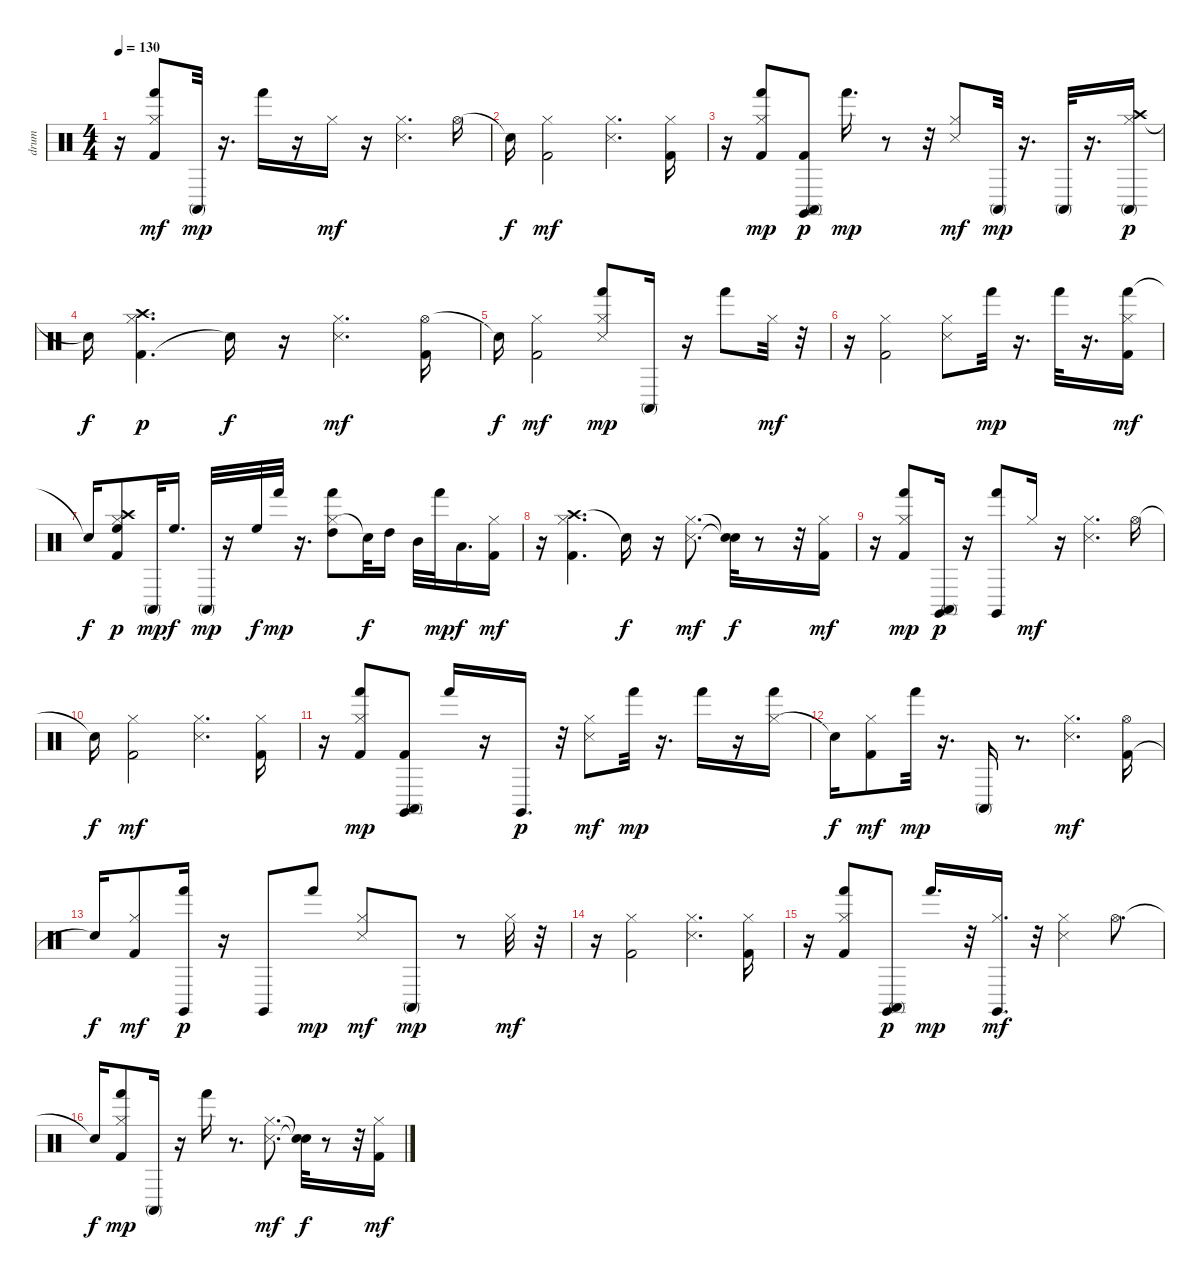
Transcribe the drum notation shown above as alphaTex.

\track ("drum" "drum") {instrument percussion}
\staff {score}
\articulation defaults
\ts (4 4)
\tempo 130
\clef neutral
\ks c
r.16{dy mf} ("Hand (hit)" "Hi-Hat (closed)" "Kick (hit) 2").8 "Conga high (mute)".32{dy mp} r.16{d} "Hand (hit)".16 r.16 "Hi-Hat (closed)".16{dy mf} r.16 ("Hi-Hat (closed)" "Snare (side stick) 3").4{d} "Hi-Hat (open)".16 |
"Snare (hit)"{t}.16{dy f} ("Kick (hit) 2" "Hi-Hat (closed)").2{dy mf} ("Hi-Hat (closed)" "Snare (side stick) 3").4{d} ("Kick (hit) 2" "Hi-Hat (closed)").16 |
r.16 ("Hi-Hat (closed)" "Hand (hit)" "Kick (hit) 2").8{dy mp} ("Kick (hit) 2" "Conga high (mute)" "Claves (hit)").8{dy p} "Hand (hit)".16{d dy mp} r.8 r.32 ("Hi-Hat (closed)" "Snare (side stick) 3").8{dy mf} "Conga high (mute)".32{dy mp} r.16{d} "Conga high (mute)".32 r.16{d} ("Hi-Hat (closed)" "Conga high (mute)" "Crash high (hit)").16{dy p} |
"Snare (hit)"{t}.16{dy f} ("Kick (hit) 2" "Hi-Hat (closed)" "Crash high (hit)").4{d dy p} "Snare (hit)"{t}.16{dy f} r.16 ("Hi-Hat (closed)" "Snare (side stick) 3").4{d dy mf} ("Hi-Hat (open)" "Kick (hit) 2").16 |
"Snare (hit)"{t}.16{dy f} ("Kick (hit) 2" "Hi-Hat (closed)").2{dy mf} ("Hi-Hat (closed)" "Snare (side stick) 3" "Hand (hit)").8{dy mp} "Conga high (mute)".16 r.16 "Hand (hit)".8 "Hi-Hat (closed)".32{dy mf} r.32 |
r.16 ("Kick (hit) 2" "Hi-Hat (closed)").2 ("Hi-Hat (closed)" "Snare (side stick) 3").8 "Hand (hit)".32{dy mp} r.16{d} "Hand (hit)".32 r.16{d} ("Hand (hit)" "Hi-Hat (closed)" "Kick (hit) 2").16{dy mf} |
"Snare (hit)"{t}.16{dy f} ("Kick (hit) 2" "Hi-Hat (closed)" "High Floor Tom (hit)" "Crash high (hit)").8{dy p} "Conga high (mute)".32{dy mp} "High Floor Tom (hit)".16{d dy f} "Conga high (mute)".32{dy mp} r.16 "High Floor Tom (hit)".32{dy f} "Hand (hit)".32{dy mp} r.16{d} ("Hi-Hat (closed)" "Hand (hit)" "High Tom (hit)").8 "Snare (hit)"{t}.32{dy f} "High Tom (hit)".16 "Mid Tom (hit)".32 "Hand (hit)".32{dy mp} "Low Tom (hit)".16{d dy f} ("Hi-Hat (closed)" "Kick (hit) 2").16{dy mf} |
r.16 ("Crash high (hit)" "Hi-Hat (closed)" "Kick (hit) 2").4{d} "Snare (hit)"{t}.16{dy f} r.16 ("Hi-Hat (closed)" "Snare (side stick) 3").8{d dy mf} ("Snare (hit)"{t} "Snare (hit)"{t}).32{dy f} r.8 r.32 ("Kick (hit) 2" "Hi-Hat (closed)").16{dy mf} |
r.16 ("Kick (hit) 2" "Hi-Hat (closed)" "Hand (hit)").8{dy mp} ("Conga high (mute)" "Claves (hit)").16{dy p} r.16 ("Hand (hit)" "Claves (hit)").8 "Hi-Hat (closed)".16{dy mf} r.16 ("Hi-Hat (closed)" "Snare (side stick) 3").4{d} "Hi-Hat (open)".16 |
"Snare (hit)"{t}.16{dy f} ("Kick (hit) 2" "Hi-Hat (closed)").2{dy mf} ("Hi-Hat (closed)" "Snare (side stick) 3").4{d} ("Kick (hit) 2" "Hi-Hat (closed)").16 |
r.16 ("Kick (hit) 2" "Hi-Hat (closed)" "Hand (hit)").8{dy mp} ("Claves (hit)" "Conga high (mute)" "Kick (hit) 2").8 "Hand (hit)".16 r.16 "Claves (hit)".16{d dy p} r.32 ("Snare (side stick) 3" "Hi-Hat (closed)").8{dy mf} "Hand (hit)".32{dy mp} r.16{d} "Hand (hit)".16 r.16 ("Hi-Hat (closed)" "Hand (hit)").16 |
"Snare (hit)"{t}.16{dy f} ("Kick (hit) 2" "Hi-Hat (closed)").8{dy mf} "Hand (hit)".32{dy mp} r.16{d} "Conga high (mute)".16 r.8{d} ("Hi-Hat (closed)" "Snare (side stick) 3").4{d dy mf} ("Kick (hit) 2" "Hi-Hat (open)").16 |
"Snare (hit)"{t}.16{dy f} ("Kick (hit) 2" "Hi-Hat (closed)").8{dy mf} ("Hand (hit)" "Claves (hit)").16{dy p} r.16 "Claves (hit)".8 "Hand (hit)".8{dy mp} ("Hi-Hat (closed)" "Snare (side stick) 3").8{dy mf} "Conga high (mute)".8{dy mp} r.8 "Hi-Hat (closed)".32{dy mf} r.32 |
r.16 ("Kick (hit) 2" "Hi-Hat (closed)").2 ("Hi-Hat (closed)" "Snare (side stick) 3").4{d} ("Kick (hit) 2" "Hi-Hat (closed)").16 |
r.16 ("Hand (hit)" "Hi-Hat (closed)" "Kick (hit) 2").8 ("Conga high (mute)" "Claves (hit)").8{dy p} "Hand (hit)".16{d dy mp} r.32 ("Claves (hit)" "Hi-Hat (closed)").16{d dy mf} r.32 ("Hi-Hat (closed)" "Snare (side stick) 3").4 "Hi-Hat (open)".8{d} |
"Snare (hit)"{t}.16{dy f} ("Kick (hit) 2" "Hi-Hat (closed)" "Hand (hit)").8{dy mp} "Conga high (mute)".16 r.16 "Hand (hit)".16 r.8{d} ("Hi-Hat (closed)" "Snare (side stick) 3").8{d dy mf} ("Snare (hit)"{t} "Snare (hit)"{t}).32{dy f} r.8 r.32 ("Kick (hit) 2" "Hi-Hat (closed)").16{dy mf}
